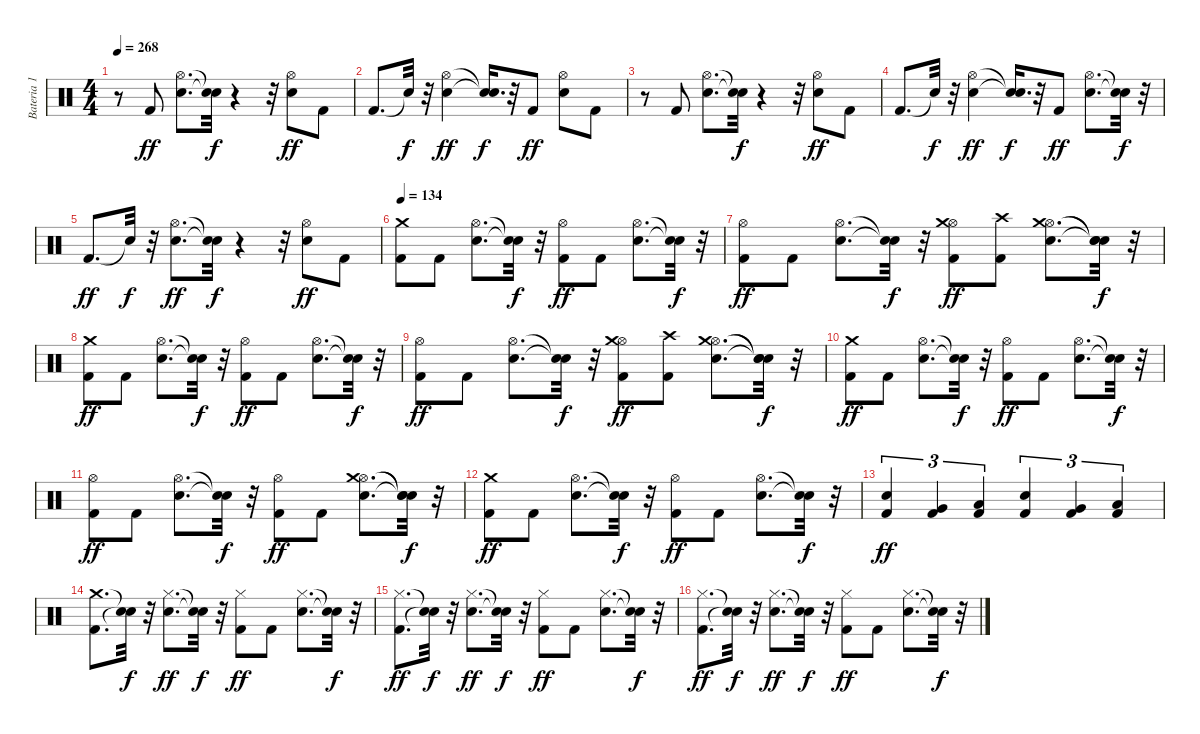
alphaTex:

\track ("Bateria 1" "Bateria 1") {instrument percussion}
\staff {score}
\articulation defaults
\ts (4 4)
\tempo 268
\clef neutral
\ks c
r.8{dy f} "Kick (hit) 2".8{dy ff} ("Electric Snare (hit)" "Hi-Hat (open)").8{d} ("Snare (hit)"{t} "Snare (hit)"{t}).32{dy f} r.4 r.32 ("Electric Snare (hit)" "Hi-Hat (open)").8{dy ff} "Kick (hit) 2".8 |
"Kick (hit) 2".8{d} "Snare (hit)"{t}.32{dy f} r.32 ("Electric Snare (hit)" "Hi-Hat (open)").4{dy ff} ("Snare (hit)"{t} "Snare (hit)"{t}).16{d dy f} r.32 "Kick (hit) 2".8{dy ff} ("Electric Snare (hit)" "Hi-Hat (open)").8 "Kick (hit) 2".8 |
r.8 "Kick (hit) 2".8 ("Electric Snare (hit)" "Hi-Hat (open)").8{d} ("Snare (hit)"{t} "Snare (hit)"{t}).32{dy f} r.4 r.32 ("Electric Snare (hit)" "Hi-Hat (open)").8{dy ff} "Kick (hit) 2".8 |
"Kick (hit) 2".8{d} "Snare (hit)"{t}.32{dy f} r.32 ("Electric Snare (hit)" "Hi-Hat (open)").4{dy ff} ("Snare (hit)"{t} "Snare (hit)"{t}).16{d dy f} r.32 "Kick (hit) 2".8{dy ff} ("Electric Snare (hit)" "Hi-Hat (open)").8{d} ("Snare (hit)"{t} "Snare (hit)"{t}).32{dy f} r.32 |
"Kick (hit) 2".8{d dy ff} "Snare (hit)"{t}.32{dy f} r.32 ("Electric Snare (hit)" "Hi-Hat (open)").8{d dy ff} ("Snare (hit)"{t} "Snare (hit)"{t}).32{dy f} r.4 r.32 ("Electric Snare (hit)" "Hi-Hat (open)").8{dy ff} "Kick (hit) 2".8 |
\tempo 134
("Kick (hit) 2" "Crash medium (hit)").8 "Kick (hit) 2".8 ("Electric Snare (hit)" "Hi-Hat (open)").8{d} ("Snare (hit)"{t} "Snare (hit)"{t}).32{dy f} r.32 ("Kick (hit) 2" "Hi-Hat (open)").8{dy ff} "Kick (hit) 2".8 ("Electric Snare (hit)" "Hi-Hat (open)").8{d} ("Snare (hit)"{t} "Snare (hit)"{t}).32{dy f} r.32 |
("Kick (hit) 2" "Hi-Hat (open)").8{dy ff} "Kick (hit) 2".8 ("Electric Snare (hit)" "Hi-Hat (open)").8{d} ("Snare (hit)"{t} "Snare (hit)"{t}).32{dy f} r.32 ("Kick (hit) 2" "Hi-Hat (open)" "Crash medium (hit)").8{dy ff} ("Kick (hit) 2" "Crash high (hit)").8 ("Electric Snare (hit)" "Hi-Hat (open)" "Crash medium (hit)").8{d} ("Snare (hit)"{t} "Snare (hit)"{t} "Snare (hit)"{t}).32{dy f} r.32 |
("Kick (hit) 2" "Crash medium (hit)").8{dy ff} "Kick (hit) 2".8 ("Electric Snare (hit)" "Hi-Hat (open)").8{d} ("Snare (hit)"{t} "Snare (hit)"{t}).32{dy f} r.32 ("Kick (hit) 2" "Hi-Hat (open)").8{dy ff} "Kick (hit) 2".8 ("Electric Snare (hit)" "Hi-Hat (open)").8{d} ("Snare (hit)"{t} "Snare (hit)"{t}).32{dy f} r.32 |
("Kick (hit) 2" "Hi-Hat (open)").8{dy ff} "Kick (hit) 2".8 ("Electric Snare (hit)" "Hi-Hat (open)").8{d} ("Snare (hit)"{t} "Snare (hit)"{t}).32{dy f} r.32 ("Kick (hit) 2" "Hi-Hat (open)" "Crash medium (hit)").8{dy ff} ("Kick (hit) 2" "Crash high (hit)").8 ("Electric Snare (hit)" "Hi-Hat (open)" "Crash medium (hit)").8{d} ("Snare (hit)"{t} "Snare (hit)"{t} "Snare (hit)"{t}).32{dy f} r.32 |
("Kick (hit) 2" "Crash medium (hit)").8{dy ff} "Kick (hit) 2".8 ("Electric Snare (hit)" "Hi-Hat (open)").8{d} ("Snare (hit)"{t} "Snare (hit)"{t}).32{dy f} r.32 ("Kick (hit) 2" "Hi-Hat (open)").8{dy ff} "Kick (hit) 2".8 ("Electric Snare (hit)" "Hi-Hat (open)").8{d} ("Snare (hit)"{t} "Snare (hit)"{t}).32{dy f} r.32 |
("Kick (hit) 2" "Hi-Hat (open)").8{dy ff} "Kick (hit) 2".8 ("Electric Snare (hit)" "Hi-Hat (open)").8{d} ("Snare (hit)"{t} "Snare (hit)"{t}).32{dy f} r.32 ("Kick (hit) 2" "Hi-Hat (open)").8{dy ff} "Kick (hit) 2".8 ("Electric Snare (hit)" "Hi-Hat (open)" "Crash medium (hit)").8{d} ("Snare (hit)"{t} "Snare (hit)"{t} "Snare (hit)"{t}).32{dy f} r.32 |
("Kick (hit) 2" "Crash medium (hit)").8{dy ff} "Kick (hit) 2".8 ("Electric Snare (hit)" "Hi-Hat (open)").8{d} ("Snare (hit)"{t} "Snare (hit)"{t}).32{dy f} r.32 ("Kick (hit) 2" "Hi-Hat (open)").8{dy ff} "Kick (hit) 2".8 ("Electric Snare (hit)" "Hi-Hat (open)").8{d} ("Snare (hit)"{t} "Snare (hit)"{t}).32{dy f} r.32 |
("Kick (hit) 2" "Electric Snare (hit)").4{tu (3 2) dy ff} ("Kick (hit) 2" "Very Low Tom (hit)").4{tu (3 2)} ("Kick (hit) 2" "Low Floor Tom (hit)").4{tu (3 2)} ("Kick (hit) 2" "Electric Snare (hit)").4{tu (3 2)} ("Kick (hit) 2" "Very Low Tom (hit)").4{tu (3 2)} ("Kick (hit) 2" "Low Floor Tom (hit)").4{tu (3 2)} |
("Kick (hit) 2" "Crash medium (hit)").8{d} ("Snare (hit)"{t} "Snare (hit)"{t}).32{dy f} r.32 ("Electric Snare (hit)" "Hi-Hat (closed)").8{d dy ff} ("Snare (hit)"{t} "Snare (hit)"{t}).32{dy f} r.32 ("Kick (hit) 2" "Hi-Hat (closed)").8{dy ff} "Kick (hit) 2".8 ("Electric Snare (hit)" "Hi-Hat (closed)").8{d} ("Snare (hit)"{t} "Snare (hit)"{t}).32{dy f} r.32 |
("Kick (hit) 2" "Hi-Hat (closed)").8{d dy ff} ("Snare (hit)"{t} "Snare (hit)"{t}).32{dy f} r.32 ("Electric Snare (hit)" "Hi-Hat (closed)").8{d dy ff} ("Snare (hit)"{t} "Snare (hit)"{t}).32{dy f} r.32 ("Kick (hit) 2" "Hi-Hat (closed)").8{dy ff} "Kick (hit) 2".8 ("Electric Snare (hit)" "Hi-Hat (closed)").8{d} ("Snare (hit)"{t} "Snare (hit)"{t}).32{dy f} r.32 |
("Kick (hit) 2" "Hi-Hat (closed)").8{d dy ff} ("Snare (hit)"{t} "Snare (hit)"{t}).32{dy f} r.32 ("Electric Snare (hit)" "Hi-Hat (closed)").8{d dy ff} ("Snare (hit)"{t} "Snare (hit)"{t}).32{dy f} r.32 ("Kick (hit) 2" "Hi-Hat (closed)").8{dy ff} "Kick (hit) 2".8 ("Electric Snare (hit)" "Hi-Hat (closed)").8{d} ("Snare (hit)"{t} "Snare (hit)"{t}).32{dy f} r.32
